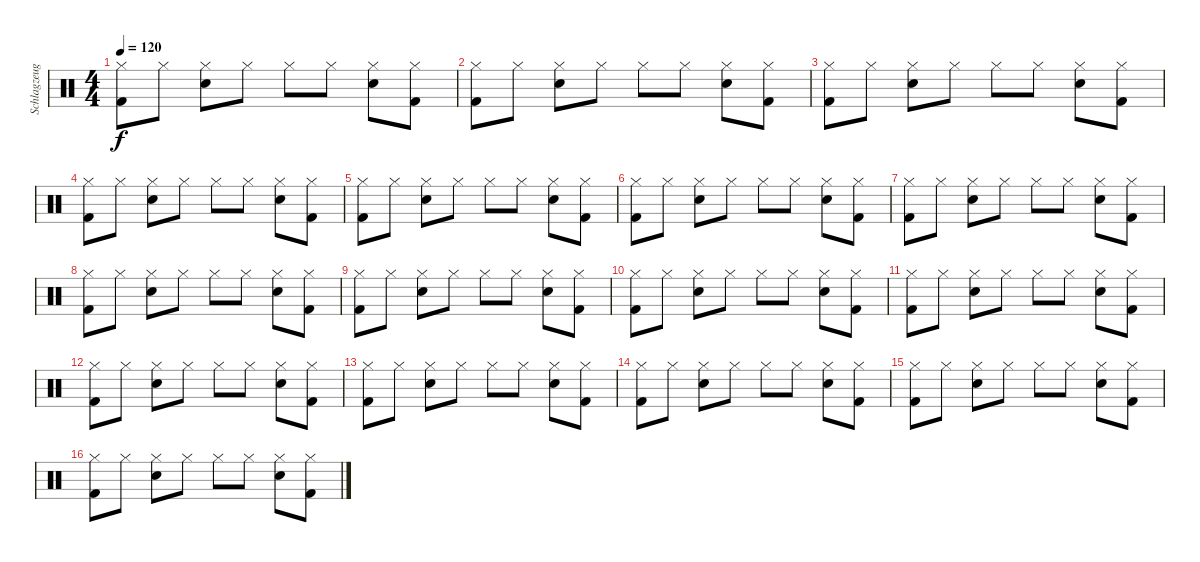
\track ("Schlagzeug" "Schlagzeug") {instrument percussion}
\staff {score}
\articulation defaults
\ts (4 4)
\tempo 120
\clef neutral
\ks c
("Kick (hit) 2" "Hi-Hat (closed)").8{dy f} "Hi-Hat (closed)".8 ("Hi-Hat (closed)" "Snare (hit) 2").8 "Hi-Hat (closed)".8 "Hi-Hat (closed)".8 "Hi-Hat (closed)".8 ("Snare (hit) 2" "Hi-Hat (closed)").8 ("Hi-Hat (closed)" "Kick (hit) 2").8 |
("Kick (hit) 2" "Hi-Hat (closed)").8 "Hi-Hat (closed)".8 ("Hi-Hat (closed)" "Snare (hit) 2").8 "Hi-Hat (closed)".8 "Hi-Hat (closed)".8 "Hi-Hat (closed)".8 ("Snare (hit) 2" "Hi-Hat (closed)").8 ("Hi-Hat (closed)" "Kick (hit) 2").8 |
("Kick (hit) 2" "Hi-Hat (closed)").8 "Hi-Hat (closed)".8 ("Hi-Hat (closed)" "Snare (hit) 2").8 "Hi-Hat (closed)".8 "Hi-Hat (closed)".8 "Hi-Hat (closed)".8 ("Snare (hit) 2" "Hi-Hat (closed)").8 ("Hi-Hat (closed)" "Kick (hit) 2").8 |
("Kick (hit) 2" "Hi-Hat (closed)").8 "Hi-Hat (closed)".8 ("Hi-Hat (closed)" "Snare (hit) 2").8 "Hi-Hat (closed)".8 "Hi-Hat (closed)".8 "Hi-Hat (closed)".8 ("Snare (hit) 2" "Hi-Hat (closed)").8 ("Hi-Hat (closed)" "Kick (hit) 2").8 |
("Kick (hit) 2" "Hi-Hat (closed)").8 "Hi-Hat (closed)".8 ("Hi-Hat (closed)" "Snare (hit) 2").8 "Hi-Hat (closed)".8 "Hi-Hat (closed)".8 "Hi-Hat (closed)".8 ("Snare (hit) 2" "Hi-Hat (closed)").8 ("Hi-Hat (closed)" "Kick (hit) 2").8 |
("Kick (hit) 2" "Hi-Hat (closed)").8 "Hi-Hat (closed)".8 ("Hi-Hat (closed)" "Snare (hit) 2").8 "Hi-Hat (closed)".8 "Hi-Hat (closed)".8 "Hi-Hat (closed)".8 ("Snare (hit) 2" "Hi-Hat (closed)").8 ("Hi-Hat (closed)" "Kick (hit) 2").8 |
("Kick (hit) 2" "Hi-Hat (closed)").8 "Hi-Hat (closed)".8 ("Hi-Hat (closed)" "Snare (hit) 2").8 "Hi-Hat (closed)".8 "Hi-Hat (closed)".8 "Hi-Hat (closed)".8 ("Snare (hit) 2" "Hi-Hat (closed)").8 ("Hi-Hat (closed)" "Kick (hit) 2").8 |
("Kick (hit) 2" "Hi-Hat (closed)").8 "Hi-Hat (closed)".8 ("Hi-Hat (closed)" "Snare (hit) 2").8 "Hi-Hat (closed)".8 "Hi-Hat (closed)".8 "Hi-Hat (closed)".8 ("Snare (hit) 2" "Hi-Hat (closed)").8 ("Hi-Hat (closed)" "Kick (hit) 2").8 |
("Kick (hit) 2" "Hi-Hat (closed)").8 "Hi-Hat (closed)".8 ("Hi-Hat (closed)" "Snare (hit) 2").8 "Hi-Hat (closed)".8 "Hi-Hat (closed)".8 "Hi-Hat (closed)".8 ("Snare (hit) 2" "Hi-Hat (closed)").8 ("Hi-Hat (closed)" "Kick (hit) 2").8 |
("Kick (hit) 2" "Hi-Hat (closed)").8 "Hi-Hat (closed)".8 ("Hi-Hat (closed)" "Snare (hit) 2").8 "Hi-Hat (closed)".8 "Hi-Hat (closed)".8 "Hi-Hat (closed)".8 ("Snare (hit) 2" "Hi-Hat (closed)").8 ("Hi-Hat (closed)" "Kick (hit) 2").8 |
("Kick (hit) 2" "Hi-Hat (closed)").8 "Hi-Hat (closed)".8 ("Hi-Hat (closed)" "Snare (hit) 2").8 "Hi-Hat (closed)".8 "Hi-Hat (closed)".8 "Hi-Hat (closed)".8 ("Snare (hit) 2" "Hi-Hat (closed)").8 ("Hi-Hat (closed)" "Kick (hit) 2").8 |
("Kick (hit) 2" "Hi-Hat (closed)").8 "Hi-Hat (closed)".8 ("Hi-Hat (closed)" "Snare (hit) 2").8 "Hi-Hat (closed)".8 "Hi-Hat (closed)".8 "Hi-Hat (closed)".8 ("Snare (hit) 2" "Hi-Hat (closed)").8 ("Hi-Hat (closed)" "Kick (hit) 2").8 |
("Kick (hit) 2" "Hi-Hat (closed)").8 "Hi-Hat (closed)".8 ("Hi-Hat (closed)" "Snare (hit) 2").8 "Hi-Hat (closed)".8 "Hi-Hat (closed)".8 "Hi-Hat (closed)".8 ("Snare (hit) 2" "Hi-Hat (closed)").8 ("Hi-Hat (closed)" "Kick (hit) 2").8 |
("Kick (hit) 2" "Hi-Hat (closed)").8 "Hi-Hat (closed)".8 ("Hi-Hat (closed)" "Snare (hit) 2").8 "Hi-Hat (closed)".8 "Hi-Hat (closed)".8 "Hi-Hat (closed)".8 ("Snare (hit) 2" "Hi-Hat (closed)").8 ("Hi-Hat (closed)" "Kick (hit) 2").8 |
("Kick (hit) 2" "Hi-Hat (closed)").8 "Hi-Hat (closed)".8 ("Hi-Hat (closed)" "Snare (hit) 2").8 "Hi-Hat (closed)".8 "Hi-Hat (closed)".8 "Hi-Hat (closed)".8 ("Snare (hit) 2" "Hi-Hat (closed)").8 ("Hi-Hat (closed)" "Kick (hit) 2").8 |
("Kick (hit) 2" "Hi-Hat (closed)").8 "Hi-Hat (closed)".8 ("Hi-Hat (closed)" "Snare (hit) 2").8 "Hi-Hat (closed)".8 "Hi-Hat (closed)".8 "Hi-Hat (closed)".8 ("Snare (hit) 2" "Hi-Hat (closed)").8 ("Hi-Hat (closed)" "Kick (hit) 2").8
